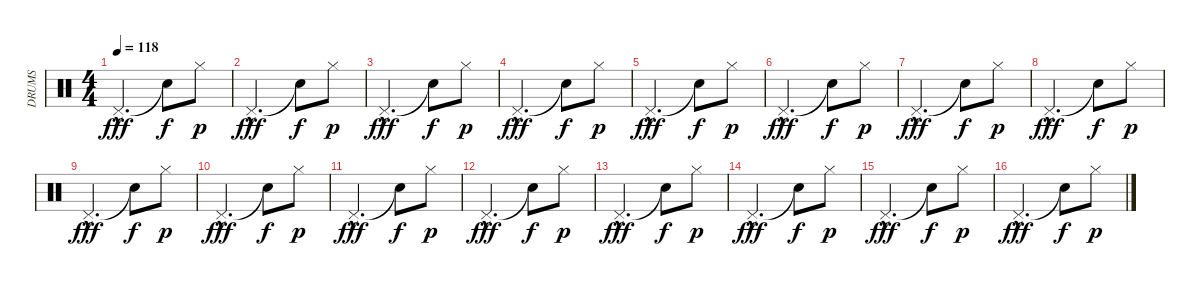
\track ("DRUMS" "DRUMS") {instrument percussion}
\staff {score}
\articulation defaults
\ts (4 4)
\tempo 118
\clef neutral
\ks c "Pedal Hi-Hat (hit)"{hac}.2{d dy fff} "Snare (hit)"{t}.8{dy f} "Hi-Hat (closed)".8{dy p}
|
"Pedal Hi-Hat (hit)"{hac}.2{d dy fff} "Snare (hit)"{t}.8{dy f} "Hi-Hat (closed)".8{dy p} |
"Pedal Hi-Hat (hit)"{hac}.2{d dy fff} "Snare (hit)"{t}.8{dy f} "Hi-Hat (closed)".8{dy p} |
"Pedal Hi-Hat (hit)"{hac}.2{d dy fff} "Snare (hit)"{t}.8{dy f} "Hi-Hat (closed)".8{dy p} |
"Pedal Hi-Hat (hit)"{hac}.2{d dy fff} "Snare (hit)"{t}.8{dy f} "Hi-Hat (closed)".8{dy p} |
"Pedal Hi-Hat (hit)"{hac}.2{d dy fff} "Snare (hit)"{t}.8{dy f} "Hi-Hat (closed)".8{dy p} |
"Pedal Hi-Hat (hit)"{hac}.2{d dy fff} "Snare (hit)"{t}.8{dy f} "Hi-Hat (closed)".8{dy p} |
"Pedal Hi-Hat (hit)"{hac}.2{d dy fff} "Snare (hit)"{t}.8{dy f} "Hi-Hat (closed)".8{dy p} |
"Pedal Hi-Hat (hit)"{hac}.2{d dy fff} "Snare (hit)"{t}.8{dy f} "Hi-Hat (closed)".8{dy p} |
"Pedal Hi-Hat (hit)"{hac}.2{d dy fff} "Snare (hit)"{t}.8{dy f} "Hi-Hat (closed)".8{dy p} |
"Pedal Hi-Hat (hit)"{hac}.2{d dy fff} "Snare (hit)"{t}.8{dy f} "Hi-Hat (closed)".8{dy p} |
"Pedal Hi-Hat (hit)"{hac}.2{d dy fff} "Snare (hit)"{t}.8{dy f} "Hi-Hat (closed)".8{dy p} |
"Pedal Hi-Hat (hit)"{hac}.2{d dy fff} "Snare (hit)"{t}.8{dy f} "Hi-Hat (closed)".8{dy p} |
"Pedal Hi-Hat (hit)"{hac}.2{d dy fff} "Snare (hit)"{t}.8{dy f} "Hi-Hat (closed)".8{dy p} |
"Pedal Hi-Hat (hit)"{hac}.2{d dy fff} "Snare (hit)"{t}.8{dy f} "Hi-Hat (closed)".8{dy p} |
"Pedal Hi-Hat (hit)"{hac}.2{d dy fff} "Snare (hit)"{t}.8{dy f} "Hi-Hat (closed)".8{dy p}
